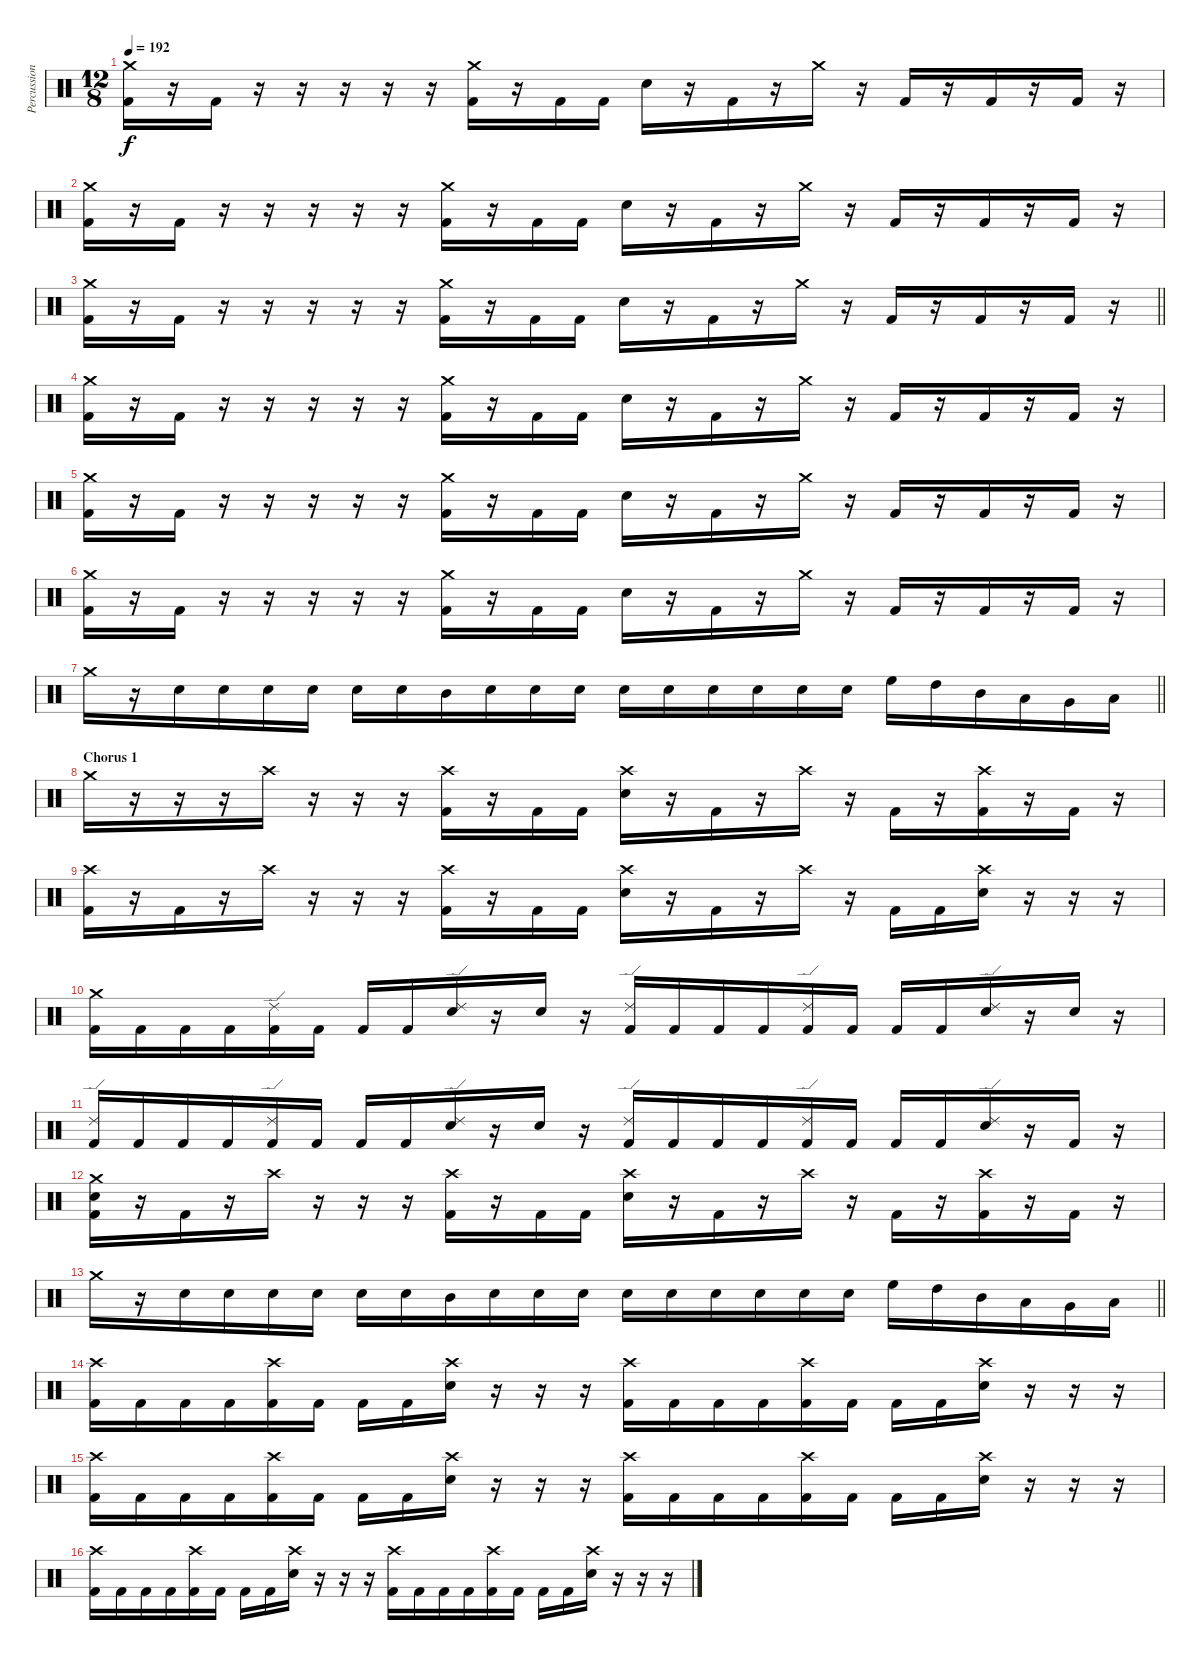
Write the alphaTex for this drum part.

\track ("Percussion" "Percussion") {instrument percussion}
\staff {score}
\articulation defaults
\ts (12 8)
\tempo 192
\clef neutral
\ks c
("Crash medium (hit)" "Kick (hit) 2").16{dy f} r.16 "Kick (hit) 2".16 r.16 r.16 r.16 r.16 r.16 ("Crash medium (hit)" "Kick (hit) 2").16 r.16 "Kick (hit) 2".16 "Kick (hit) 2".16 "Electric Snare (hit)".16 r.16 "Kick (hit) 2".16 r.16 "Crash medium (hit)".16 r.16 "Kick (hit) 2".16 r.16 "Kick (hit) 2".16 r.16 "Kick (hit) 2".16 r.16 |
("Crash medium (hit)" "Kick (hit) 2").16 r.16 "Kick (hit) 2".16 r.16 r.16 r.16 r.16 r.16 ("Crash medium (hit)" "Kick (hit) 2").16 r.16 "Kick (hit) 2".16 "Kick (hit) 2".16 "Electric Snare (hit)".16 r.16 "Kick (hit) 2".16 r.16 "Crash medium (hit)".16 r.16 "Kick (hit) 2".16 r.16 "Kick (hit) 2".16 r.16 "Kick (hit) 2".16 r.16 |
\barLineRight lightlight
("Crash medium (hit)" "Kick (hit) 2").16 r.16 "Kick (hit) 2".16 r.16 r.16 r.16 r.16 r.16 ("Crash medium (hit)" "Kick (hit) 2").16 r.16 "Kick (hit) 2".16 "Kick (hit) 2".16 "Electric Snare (hit)".16 r.16 "Kick (hit) 2".16 r.16 "Crash medium (hit)".16 r.16 "Kick (hit) 2".16 r.16 "Kick (hit) 2".16 r.16 "Kick (hit) 2".16 r.16 |
("Crash medium (hit)" "Kick (hit) 2").16 r.16 "Kick (hit) 2".16 r.16 r.16 r.16 r.16 r.16 ("Crash medium (hit)" "Kick (hit) 2").16 r.16 "Kick (hit) 2".16 "Kick (hit) 2".16 "Electric Snare (hit)".16 r.16 "Kick (hit) 2".16 r.16 "Crash medium (hit)".16 r.16 "Kick (hit) 2".16 r.16 "Kick (hit) 2".16 r.16 "Kick (hit) 2".16 r.16 |
("Crash medium (hit)" "Kick (hit) 2").16 r.16 "Kick (hit) 2".16 r.16 r.16 r.16 r.16 r.16 ("Crash medium (hit)" "Kick (hit) 2").16 r.16 "Kick (hit) 2".16 "Kick (hit) 2".16 "Electric Snare (hit)".16 r.16 "Kick (hit) 2".16 r.16 "Crash medium (hit)".16 r.16 "Kick (hit) 2".16 r.16 "Kick (hit) 2".16 r.16 "Kick (hit) 2".16 r.16 |
("Crash medium (hit)" "Kick (hit) 2").16 r.16 "Kick (hit) 2".16 r.16 r.16 r.16 r.16 r.16 ("Crash medium (hit)" "Kick (hit) 2").16 r.16 "Kick (hit) 2".16 "Kick (hit) 2".16 "Electric Snare (hit)".16 r.16 "Kick (hit) 2".16 r.16 "Crash medium (hit)".16 r.16 "Kick (hit) 2".16 r.16 "Kick (hit) 2".16 r.16 "Kick (hit) 2".16 r.16 |
\barLineRight lightlight "Crash medium (hit)".16
r.16 "Electric Snare (hit)".16 "Electric Snare (hit)".16 "Electric Snare (hit)".16 "Electric Snare (hit)".16 "Electric Snare (hit)".16 "Electric Snare (hit)".16 "Mid Tom (hit)".16 "Electric Snare (hit)".16 "Electric Snare (hit)".16 "Electric Snare (hit)".16 "Electric Snare (hit)".16 "Electric Snare (hit)".16 "Electric Snare (hit)".16 "Electric Snare (hit)".16 "Electric Snare (hit)".16 "Electric Snare (hit)".16 "High Floor Tom (hit)".16 "High Tom (hit)".16 "Mid Tom (hit)".16 "Low Tom (hit)".16 "Very Low Tom (hit)".16 "Low Floor Tom (hit)".16 |
\section ("" "Chorus 1")
"Crash medium (hit)".16 r.16 r.16 r.16 "Crash high (hit)".16 r.16 r.16 r.16 ("Crash high (hit)" "Kick (hit) 2").16 r.16 "Kick (hit) 2".16 "Kick (hit) 2".16 ("Crash high (hit)" "Electric Snare (hit)").16 r.16 "Kick (hit) 2".16 r.16 "Crash high (hit)".16 r.16 "Kick (hit) 2".16 r.16 ("Crash high (hit)" "Kick (hit) 2").16 r.16 "Kick (hit) 2".16 r.16 |
("Crash high (hit)" "Kick (hit) 2").16 r.16 "Kick (hit) 2".16 r.16 "Crash high (hit)".16 r.16 r.16 r.16 ("Crash high (hit)" "Kick (hit) 2").16 r.16 "Kick (hit) 2".16 "Kick (hit) 2".16 ("Crash high (hit)" "Electric Snare (hit)").16 r.16 "Kick (hit) 2".16 r.16 "Crash high (hit)".16 r.16 "Kick (hit) 2".16 "Kick (hit) 2".16 ("Crash high (hit)" "Electric Snare (hit)").16 r.16 r.16 r.16 |
("Crash medium (hit)" "Kick (hit) 2").16 "Kick (hit) 2".16 "Kick (hit) 2".16 "Kick (hit) 2".16 ("Ride (edge) 2" "Kick (hit) 2").16 "Kick (hit) 2".16 "Kick (hit) 2".16 "Kick (hit) 2".16 ("Ride (edge) 2" "Electric Snare (hit)").16 r.16 "Electric Snare (hit)".16 r.16 ("Ride (edge) 2" "Kick (hit) 2").16 "Kick (hit) 2".16 "Kick (hit) 2".16 "Kick (hit) 2".16 ("Ride (edge) 2" "Kick (hit) 2").16 "Kick (hit) 2".16 "Kick (hit) 2".16 "Kick (hit) 2".16 ("Ride (edge) 2" "Electric Snare (hit)").16 r.16 "Electric Snare (hit)".16 r.16 |
("Ride (edge) 2" "Kick (hit) 2").16 "Kick (hit) 2".16 "Kick (hit) 2".16 "Kick (hit) 2".16 ("Ride (edge) 2" "Kick (hit) 2").16 "Kick (hit) 2".16 "Kick (hit) 2".16 "Kick (hit) 2".16 ("Ride (edge) 2" "Electric Snare (hit)").16 r.16 "Electric Snare (hit)".16 r.16 ("Ride (edge) 2" "Kick (hit) 2").16 "Kick (hit) 2".16 "Kick (hit) 2".16 "Kick (hit) 2".16 ("Ride (edge) 2" "Kick (hit) 2").16 "Kick (hit) 2".16 "Kick (hit) 2".16 "Kick (hit) 2".16 ("Ride (edge) 2" "Electric Snare (hit)").16 r.16 "Kick (hit) 2".16 r.16 |
("Crash medium (hit)" "Electric Snare (hit)" "Kick (hit) 2").16 r.16 "Kick (hit) 2".16 r.16 "Crash high (hit)".16 r.16 r.16 r.16 ("Crash high (hit)" "Kick (hit) 2").16 r.16 "Kick (hit) 2".16 "Kick (hit) 2".16 ("Crash high (hit)" "Electric Snare (hit)").16 r.16 "Kick (hit) 2".16 r.16 "Crash high (hit)".16 r.16 "Kick (hit) 2".16 r.16 ("Crash high (hit)" "Kick (hit) 2").16 r.16 "Kick (hit) 2".16 r.16 |
\barLineRight lightlight "Crash medium (hit)".16
r.16 "Electric Snare (hit)".16 "Electric Snare (hit)".16 "Electric Snare (hit)".16 "Electric Snare (hit)".16 "Electric Snare (hit)".16 "Electric Snare (hit)".16 "Mid Tom (hit)".16 "Electric Snare (hit)".16 "Electric Snare (hit)".16 "Electric Snare (hit)".16 "Electric Snare (hit)".16 "Electric Snare (hit)".16 "Electric Snare (hit)".16 "Electric Snare (hit)".16 "Electric Snare (hit)".16 "Electric Snare (hit)".16 "High Floor Tom (hit)".16 "High Tom (hit)".16 "Mid Tom (hit)".16 "Low Tom (hit)".16 "Very Low Tom (hit)".16 "Low Floor Tom (hit)".16 |
("Crash high (hit)" "Kick (hit) 2").16 "Kick (hit) 2".16 "Kick (hit) 2".16 "Kick (hit) 2".16 ("Crash high (hit)" "Kick (hit) 2").16 "Kick (hit) 2".16 "Kick (hit) 2".16 "Kick (hit) 2".16 ("Crash high (hit)" "Electric Snare (hit)").16 r.16 r.16 r.16 ("Crash high (hit)" "Kick (hit) 2").16 "Kick (hit) 2".16 "Kick (hit) 2".16 "Kick (hit) 2".16 ("Crash high (hit)" "Kick (hit) 2").16 "Kick (hit) 2".16 "Kick (hit) 2".16 "Kick (hit) 2".16 ("Crash high (hit)" "Electric Snare (hit)").16 r.16 r.16 r.16 |
("Crash high (hit)" "Kick (hit) 2").16 "Kick (hit) 2".16 "Kick (hit) 2".16 "Kick (hit) 2".16 ("Crash high (hit)" "Kick (hit) 2").16 "Kick (hit) 2".16 "Kick (hit) 2".16 "Kick (hit) 2".16 ("Crash high (hit)" "Electric Snare (hit)").16 r.16 r.16 r.16 ("Crash high (hit)" "Kick (hit) 2").16 "Kick (hit) 2".16 "Kick (hit) 2".16 "Kick (hit) 2".16 ("Crash high (hit)" "Kick (hit) 2").16 "Kick (hit) 2".16 "Kick (hit) 2".16 "Kick (hit) 2".16 ("Crash high (hit)" "Electric Snare (hit)").16 r.16 r.16 r.16 |
("Crash high (hit)" "Kick (hit) 2").16 "Kick (hit) 2".16 "Kick (hit) 2".16 "Kick (hit) 2".16 ("Crash high (hit)" "Kick (hit) 2").16 "Kick (hit) 2".16 "Kick (hit) 2".16 "Kick (hit) 2".16 ("Crash high (hit)" "Electric Snare (hit)").16 r.16 r.16 r.16 ("Crash high (hit)" "Kick (hit) 2").16 "Kick (hit) 2".16 "Kick (hit) 2".16 "Kick (hit) 2".16 ("Crash high (hit)" "Kick (hit) 2").16 "Kick (hit) 2".16 "Kick (hit) 2".16 "Kick (hit) 2".16 ("Crash high (hit)" "Electric Snare (hit)").16 r.16 r.16 r.16
